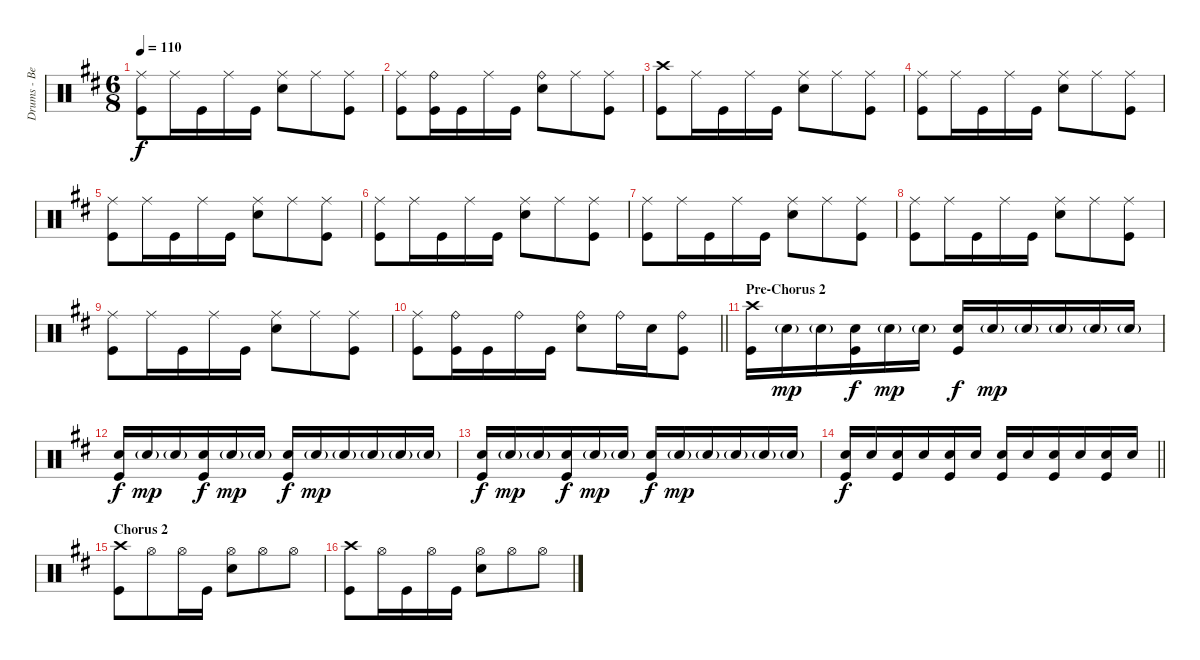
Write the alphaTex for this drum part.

\track ("Drums - Ben Johnston" "Drums - Be") {instrument percussion}
\staff {score}
\articulation defaults
\ts (6 8)
\tempo 110
\clef neutral
\ks d
("Ride (middle)" "Kick (hit)").8{dy f} "Ride (middle)".16 "Kick (hit)".16 "Ride (middle)".16 "Kick (hit)".16 ("Ride (middle)" "Snare (hit) 2").8 "Ride (middle)".8 ("Ride (middle)" "Kick (hit)").8 |
("Ride (middle)" "Kick (hit)").8 ("Ride (bell)" "Kick (hit)").16 "Kick (hit)".16 "Ride (middle)".16 "Kick (hit)".16 ("Ride (bell)" "Snare (hit) 2").8 "Ride (middle)".8 ("Ride (middle)" "Kick (hit)").8 |
("Crash high (hit)" "Kick (hit)").8 "Ride (middle)".16 "Kick (hit)".16 "Ride (middle)".16 "Kick (hit)".16 ("Ride (middle)" "Snare (hit) 2").8 "Ride (middle)".8 ("Ride (middle)" "Kick (hit)").8 |
("Ride (middle)" "Kick (hit)").8 "Ride (middle)".16 "Kick (hit)".16 "Ride (middle)".16 "Kick (hit)".16 ("Ride (middle)" "Snare (hit) 2").8 "Ride (middle)".8 ("Ride (middle)" "Kick (hit)").8 |
("Ride (middle)" "Kick (hit)").8 "Ride (middle)".16 "Kick (hit)".16 "Ride (middle)".16 "Kick (hit)".16 ("Ride (middle)" "Snare (hit) 2").8 "Ride (middle)".8 ("Ride (middle)" "Kick (hit)").8 |
("Ride (middle)" "Kick (hit)").8 "Ride (middle)".16 "Kick (hit)".16 "Ride (middle)".16 "Kick (hit)".16 ("Ride (middle)" "Snare (hit) 2").8 "Ride (middle)".8 ("Ride (middle)" "Kick (hit)").8 |
("Ride (middle)" "Kick (hit)").8 "Ride (middle)".16 "Kick (hit)".16 "Ride (middle)".16 "Kick (hit)".16 ("Ride (middle)" "Snare (hit) 2").8 "Ride (middle)".8 ("Ride (middle)" "Kick (hit)").8 |
("Ride (middle)" "Kick (hit)").8 "Ride (middle)".16 "Kick (hit)".16 "Ride (middle)".16 "Kick (hit)".16 ("Ride (middle)" "Snare (hit) 2").8 "Ride (middle)".8 ("Ride (middle)" "Kick (hit)").8 |
("Ride (middle)" "Kick (hit)").8 "Ride (middle)".16 "Kick (hit)".16 "Ride (middle)".16 "Kick (hit)".16 ("Ride (middle)" "Snare (hit) 2").8 "Ride (middle)".8 ("Ride (middle)" "Kick (hit)").8 |
\barLineRight lightlight
("Ride (middle)" "Kick (hit)").8 ("Ride (bell)" "Kick (hit)").16 "Kick (hit)".16 "Ride (bell)".16 "Kick (hit)".16 ("Ride (bell)" "Snare (hit) 2").8 "Ride (bell)".16 "Snare (hit) 2".16 ("Ride (bell)" "Kick (hit)").8 |
\section ("" "Pre-Chorus 2")
("Crash high (hit)" "Kick (hit)").16 "Snare (hit) 2"{g}.16{dy mp} "Snare (hit) 2"{g}.16 ("Snare (hit) 2" "Kick (hit)").16{dy f} "Snare (hit) 2"{g}.16{dy mp} "Snare (hit) 2"{g}.16 ("Snare (hit) 2" "Kick (hit)").16{dy f} "Snare (hit) 2"{g}.16{dy mp} "Snare (hit) 2"{g}.16 "Snare (hit) 2"{g}.16 "Snare (hit) 2"{g}.16 "Snare (hit) 2"{g}.16 |
("Snare (hit) 2" "Kick (hit)").16{dy f} "Snare (hit) 2"{g}.16{dy mp} "Snare (hit) 2"{g}.16 ("Snare (hit) 2" "Kick (hit)").16{dy f} "Snare (hit) 2"{g}.16{dy mp} "Snare (hit) 2"{g}.16 ("Snare (hit) 2" "Kick (hit)").16{dy f} "Snare (hit) 2"{g}.16{dy mp} "Snare (hit) 2"{g}.16 "Snare (hit) 2"{g}.16 "Snare (hit) 2"{g}.16 "Snare (hit) 2"{g}.16 |
("Snare (hit) 2" "Kick (hit)").16{dy f} "Snare (hit) 2"{g}.16{dy mp} "Snare (hit) 2"{g}.16 ("Snare (hit) 2" "Kick (hit)").16{dy f} "Snare (hit) 2"{g}.16{dy mp} "Snare (hit) 2"{g}.16 ("Snare (hit) 2" "Kick (hit)").16{dy f} "Snare (hit) 2"{g}.16{dy mp} "Snare (hit) 2"{g}.16 "Snare (hit) 2"{g}.16 "Snare (hit) 2"{g}.16 "Snare (hit) 2"{g}.16 |
\barLineRight lightlight
("Snare (hit) 2" "Kick (hit)").16{dy f} "Snare (hit) 2".16 ("Snare (hit) 2" "Kick (hit)").16 "Snare (hit) 2".16 ("Snare (hit) 2" "Kick (hit)").16 "Snare (hit) 2".16 ("Snare (hit) 2" "Kick (hit)").16 "Snare (hit) 2".16 ("Snare (hit) 2" "Kick (hit)").16 "Snare (hit) 2".16 ("Snare (hit) 2" "Kick (hit)").16 "Snare (hit) 2".16 |
\section ("" "Chorus 2")
("Crash high (hit)" "Kick (hit)").8 "Hi-Hat (open)".8 "Hi-Hat (open)".16 "Kick (hit)".16 ("Hi-Hat (open)" "Snare (hit) 2").8 "Hi-Hat (open)".8 "Hi-Hat (open)".8 |
("Crash high (hit)" "Kick (hit)").8 "Hi-Hat (open)".16 "Kick (hit)".16 "Hi-Hat (open)".16 "Kick (hit)".16 ("Hi-Hat (open)" "Snare (hit) 2").8 "Hi-Hat (open)".8 "Hi-Hat (open)".8
